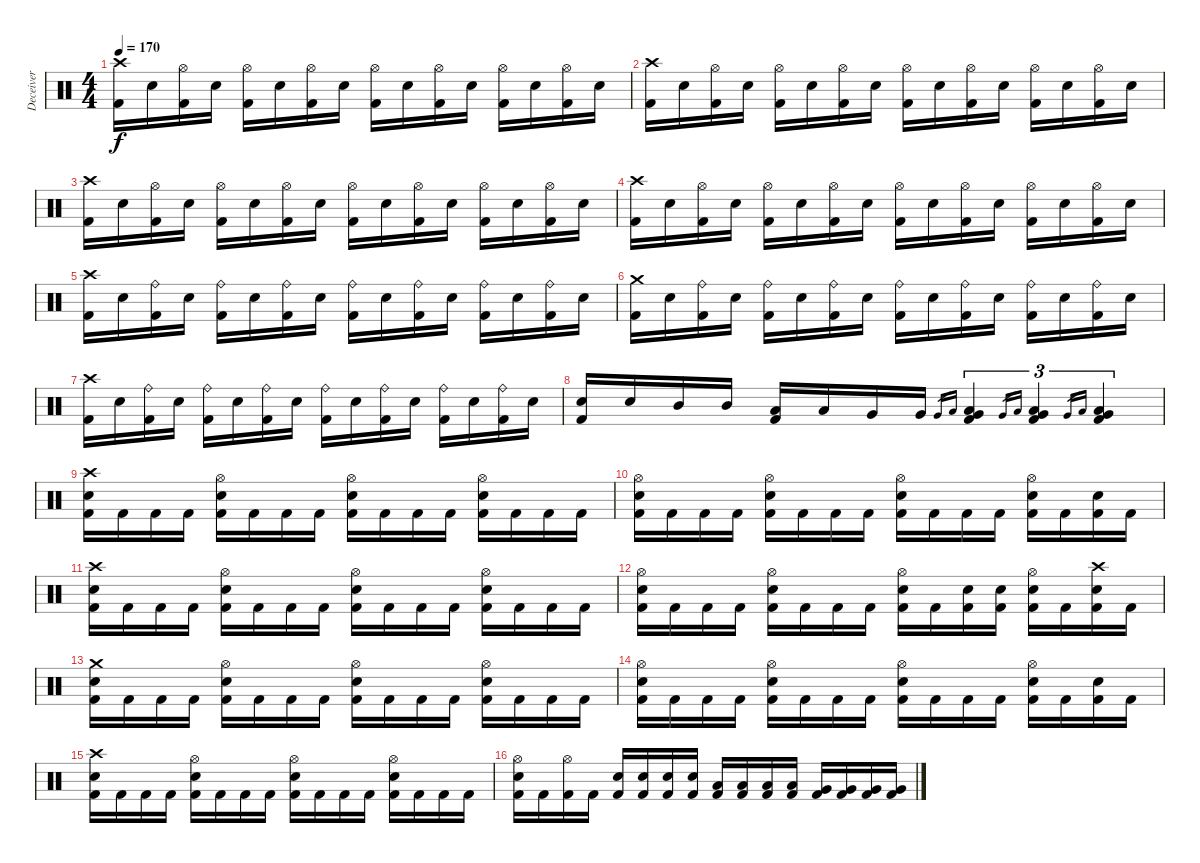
\track ("Deceiver" "Deceiver") {instrument percussion}
\staff {score}
\articulation defaults
\ts (4 4)
\tempo 170
\clef neutral
\ks c
("Crash high (hit)" "Kick (hit) 2").16{dy f} "Electric Snare (hit)".16 ("Hi-Hat (open)" "Kick (hit) 2").16 "Electric Snare (hit)".16 ("Hi-Hat (open)" "Kick (hit) 2").16 "Electric Snare (hit)".16 ("Hi-Hat (open)" "Kick (hit) 2").16 "Electric Snare (hit)".16 ("Hi-Hat (open)" "Kick (hit) 2").16 "Electric Snare (hit)".16 ("Hi-Hat (open)" "Kick (hit) 2").16 "Electric Snare (hit)".16 ("Hi-Hat (open)" "Kick (hit) 2").16 "Electric Snare (hit)".16 ("Hi-Hat (open)" "Kick (hit) 2").16 "Electric Snare (hit)".16 |
("Crash high (hit)" "Kick (hit) 2").16 "Electric Snare (hit)".16 ("Hi-Hat (open)" "Kick (hit) 2").16 "Electric Snare (hit)".16 ("Hi-Hat (open)" "Kick (hit) 2").16 "Electric Snare (hit)".16 ("Hi-Hat (open)" "Kick (hit) 2").16 "Electric Snare (hit)".16 ("Hi-Hat (open)" "Kick (hit) 2").16 "Electric Snare (hit)".16 ("Hi-Hat (open)" "Kick (hit) 2").16 "Electric Snare (hit)".16 ("Hi-Hat (open)" "Kick (hit) 2").16 "Electric Snare (hit)".16 ("Hi-Hat (open)" "Kick (hit) 2").16 "Electric Snare (hit)".16 |
("Crash high (hit)" "Kick (hit) 2").16 "Electric Snare (hit)".16 ("Hi-Hat (open)" "Kick (hit) 2").16 "Electric Snare (hit)".16 ("Hi-Hat (open)" "Kick (hit) 2").16 "Electric Snare (hit)".16 ("Hi-Hat (open)" "Kick (hit) 2").16 "Electric Snare (hit)".16 ("Hi-Hat (open)" "Kick (hit) 2").16 "Electric Snare (hit)".16 ("Hi-Hat (open)" "Kick (hit) 2").16 "Electric Snare (hit)".16 ("Hi-Hat (open)" "Kick (hit) 2").16 "Electric Snare (hit)".16 ("Hi-Hat (open)" "Kick (hit) 2").16 "Electric Snare (hit)".16 |
("Crash high (hit)" "Kick (hit) 2").16 "Electric Snare (hit)".16 ("Hi-Hat (open)" "Kick (hit) 2").16 "Electric Snare (hit)".16 ("Hi-Hat (open)" "Kick (hit) 2").16 "Electric Snare (hit)".16 ("Hi-Hat (open)" "Kick (hit) 2").16 "Electric Snare (hit)".16 ("Hi-Hat (open)" "Kick (hit) 2").16 "Electric Snare (hit)".16 ("Hi-Hat (open)" "Kick (hit) 2").16 "Electric Snare (hit)".16 ("Hi-Hat (open)" "Kick (hit) 2").16 "Electric Snare (hit)".16 ("Hi-Hat (open)" "Kick (hit) 2").16 "Electric Snare (hit)".16 |
("Crash high (hit)" "Kick (hit) 2").16 "Electric Snare (hit)".16 ("Ride (bell)" "Kick (hit) 2").16 "Electric Snare (hit)".16 ("Ride (bell)" "Kick (hit) 2").16 "Electric Snare (hit)".16 ("Ride (bell)" "Kick (hit) 2").16 "Electric Snare (hit)".16 ("Ride (bell)" "Kick (hit) 2").16 "Electric Snare (hit)".16 ("Ride (bell)" "Kick (hit) 2").16 "Electric Snare (hit)".16 ("Ride (bell)" "Kick (hit) 2").16 "Electric Snare (hit)".16 ("Ride (bell)" "Kick (hit) 2").16 "Electric Snare (hit)".16 |
("Crash medium (hit)" "Kick (hit) 2").16 "Electric Snare (hit)".16 ("Ride (bell)" "Kick (hit) 2").16 "Electric Snare (hit)".16 ("Ride (bell)" "Kick (hit) 2").16 "Electric Snare (hit)".16 ("Ride (bell)" "Kick (hit) 2").16 "Electric Snare (hit)".16 ("Ride (bell)" "Kick (hit) 2").16 "Electric Snare (hit)".16 ("Ride (bell)" "Kick (hit) 2").16 "Electric Snare (hit)".16 ("Ride (bell)" "Kick (hit) 2").16 "Electric Snare (hit)".16 ("Ride (bell)" "Kick (hit) 2").16 "Electric Snare (hit)".16 |
("Crash high (hit)" "Kick (hit) 2").16 "Electric Snare (hit)".16 ("Ride (bell)" "Kick (hit) 2").16 "Electric Snare (hit)".16 ("Ride (bell)" "Kick (hit) 2").16 "Electric Snare (hit)".16 ("Ride (bell)" "Kick (hit) 2").16 "Electric Snare (hit)".16 ("Ride (bell)" "Kick (hit) 2").16 "Electric Snare (hit)".16 ("Ride (bell)" "Kick (hit) 2").16 "Electric Snare (hit)".16 ("Ride (bell)" "Kick (hit) 2").16 "Electric Snare (hit)".16 ("Ride (bell)" "Kick (hit) 2").16 "Electric Snare (hit)".16 |
("Electric Snare (hit)" "Kick (hit) 2").16 "Electric Snare (hit)".16 "Mid Tom (hit)".16 "Mid Tom (hit)".16 ("Low Tom (hit)" "Kick (hit) 2").16 "Low Tom (hit)".16 "Very Low Tom (hit)".16 "Very Low Tom (hit)".16 "Very Low Tom (hit)".16{gr} "Low Tom (hit)".16{gr} ("Very Low Tom (hit)" "Low Tom (hit)" "Kick (hit) 2").4{tu (3 2)} "Very Low Tom (hit)".16{gr} "Low Tom (hit)".16{gr} ("Very Low Tom (hit)" "Low Tom (hit)" "Kick (hit) 2").4{tu (3 2)} "Very Low Tom (hit)".16{gr} "Low Tom (hit)".16{gr} ("Very Low Tom (hit)" "Low Tom (hit)" "Kick (hit) 2").4{tu (3 2)} |
("Crash high (hit)" "Electric Snare (hit)" "Kick (hit) 2").16 "Kick (hit) 2".16 "Kick (hit) 2".16 "Kick (hit) 2".16 ("Hi-Hat (open)" "Electric Snare (hit)" "Kick (hit) 2").16 "Kick (hit) 2".16 "Kick (hit) 2".16 "Kick (hit) 2".16 ("Hi-Hat (open)" "Electric Snare (hit)" "Kick (hit) 2").16 "Kick (hit) 2".16 "Kick (hit) 2".16 "Kick (hit) 2".16 ("Hi-Hat (open)" "Electric Snare (hit)" "Kick (hit) 2").16 "Kick (hit) 2".16 "Kick (hit) 2".16 "Kick (hit) 2".16 |
("Hi-Hat (open)" "Electric Snare (hit)" "Kick (hit) 2").16 "Kick (hit) 2".16 "Kick (hit) 2".16 "Kick (hit) 2".16 ("Hi-Hat (open)" "Electric Snare (hit)" "Kick (hit) 2").16 "Kick (hit) 2".16 "Kick (hit) 2".16 "Kick (hit) 2".16 ("Hi-Hat (open)" "Electric Snare (hit)" "Kick (hit) 2").16 "Kick (hit) 2".16 "Kick (hit) 2".16 "Kick (hit) 2".16 ("Hi-Hat (open)" "Electric Snare (hit)" "Kick (hit) 2").16 "Kick (hit) 2".16 ("Electric Snare (hit)" "Kick (hit) 2").16 "Kick (hit) 2".16 |
("Crash high (hit)" "Electric Snare (hit)" "Kick (hit) 2").16 "Kick (hit) 2".16 "Kick (hit) 2".16 "Kick (hit) 2".16 ("Hi-Hat (open)" "Electric Snare (hit)" "Kick (hit) 2").16 "Kick (hit) 2".16 "Kick (hit) 2".16 "Kick (hit) 2".16 ("Hi-Hat (open)" "Electric Snare (hit)" "Kick (hit) 2").16 "Kick (hit) 2".16 "Kick (hit) 2".16 "Kick (hit) 2".16 ("Hi-Hat (open)" "Electric Snare (hit)" "Kick (hit) 2").16 "Kick (hit) 2".16 "Kick (hit) 2".16 "Kick (hit) 2".16 |
("Hi-Hat (open)" "Electric Snare (hit)" "Kick (hit) 2").16 "Kick (hit) 2".16 "Kick (hit) 2".16 "Kick (hit) 2".16 ("Hi-Hat (open)" "Electric Snare (hit)" "Kick (hit) 2").16 "Kick (hit) 2".16 "Kick (hit) 2".16 "Kick (hit) 2".16 ("Hi-Hat (open)" "Electric Snare (hit)" "Kick (hit) 2").16 "Kick (hit) 2".16 ("Electric Snare (hit)" "Kick (hit) 2").16 ("Electric Snare (hit)" "Kick (hit) 2").16 ("Hi-Hat (open)" "Electric Snare (hit)" "Kick (hit) 2").16 "Kick (hit) 2".16 ("Crash high (hit)" "Electric Snare (hit)" "Kick (hit) 2").16 "Kick (hit) 2".16 |
("Crash medium (hit)" "Electric Snare (hit)" "Kick (hit) 2").16 "Kick (hit) 2".16 "Kick (hit) 2".16 "Kick (hit) 2".16 ("Hi-Hat (open)" "Electric Snare (hit)" "Kick (hit) 2").16 "Kick (hit) 2".16 "Kick (hit) 2".16 "Kick (hit) 2".16 ("Hi-Hat (open)" "Electric Snare (hit)" "Kick (hit) 2").16 "Kick (hit) 2".16 "Kick (hit) 2".16 "Kick (hit) 2".16 ("Hi-Hat (open)" "Electric Snare (hit)" "Kick (hit) 2").16 "Kick (hit) 2".16 "Kick (hit) 2".16 "Kick (hit) 2".16 |
("Hi-Hat (open)" "Electric Snare (hit)" "Kick (hit) 2").16 "Kick (hit) 2".16 "Kick (hit) 2".16 "Kick (hit) 2".16 ("Hi-Hat (open)" "Electric Snare (hit)" "Kick (hit) 2").16 "Kick (hit) 2".16 "Kick (hit) 2".16 "Kick (hit) 2".16 ("Hi-Hat (open)" "Electric Snare (hit)" "Kick (hit) 2").16 "Kick (hit) 2".16 "Kick (hit) 2".16 "Kick (hit) 2".16 ("Hi-Hat (open)" "Electric Snare (hit)" "Kick (hit) 2").16 "Kick (hit) 2".16 ("Electric Snare (hit)" "Kick (hit) 2").16 "Kick (hit) 2".16 |
("Crash high (hit)" "Electric Snare (hit)" "Kick (hit) 2").16 "Kick (hit) 2".16 "Kick (hit) 2".16 "Kick (hit) 2".16 ("Hi-Hat (open)" "Electric Snare (hit)" "Kick (hit) 2").16 "Kick (hit) 2".16 "Kick (hit) 2".16 "Kick (hit) 2".16 ("Hi-Hat (open)" "Electric Snare (hit)" "Kick (hit) 2").16 "Kick (hit) 2".16 "Kick (hit) 2".16 "Kick (hit) 2".16 ("Hi-Hat (open)" "Electric Snare (hit)" "Kick (hit) 2").16 "Kick (hit) 2".16 "Kick (hit) 2".16 "Kick (hit) 2".16 |
("Hi-Hat (open)" "Electric Snare (hit)" "Kick (hit) 2").16 "Kick (hit) 2".16 ("Hi-Hat (open)" "Kick (hit) 2").16 "Kick (hit) 2".16 ("Electric Snare (hit)" "Kick (hit) 2").16 ("Electric Snare (hit)" "Kick (hit) 2").16 ("Electric Snare (hit)" "Kick (hit) 2").16 ("Electric Snare (hit)" "Kick (hit) 2").16 ("Low Tom (hit)" "Kick (hit) 2").16 ("Low Tom (hit)" "Kick (hit) 2").16 ("Low Tom (hit)" "Kick (hit) 2").16 ("Low Tom (hit)" "Kick (hit) 2").16 ("Very Low Tom (hit)" "Kick (hit) 2").16 ("Very Low Tom (hit)" "Kick (hit) 2").16 ("Very Low Tom (hit)" "Kick (hit) 2").16 ("Very Low Tom (hit)" "Kick (hit) 2").16
